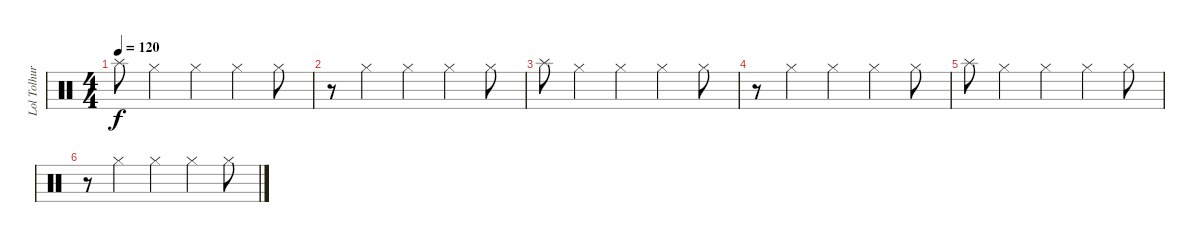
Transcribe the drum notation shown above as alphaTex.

\track ("Lol Tolhurst" "Lol Tolhur") {instrument percussion}
\staff {score}
\articulation defaults
\ts (4 4)
\tempo 120
\clef neutral
\ks c "Splash (hit)".8{dy f} "Hi-Hat (closed)".4 "Hi-Hat (closed)".4 "Hi-Hat (closed)".4 "Hi-Hat (closed)".8
|
r.8{volume 6} "Hi-Hat (closed)".4 "Hi-Hat (closed)".4 "Hi-Hat (closed)".4 "Hi-Hat (closed)".8 |
"Splash (hit)".8{volume 4} "Hi-Hat (closed)".4 "Hi-Hat (closed)".4 "Hi-Hat (closed)".4 "Hi-Hat (closed)".8 |
r.8{volume 3} "Hi-Hat (closed)".4 "Hi-Hat (closed)".4 "Hi-Hat (closed)".4 "Hi-Hat (closed)".8 |
"Splash (hit)".8{volume 2} "Hi-Hat (closed)".4 "Hi-Hat (closed)".4 "Hi-Hat (closed)".4 "Hi-Hat (closed)".8 |
r.8{volume 1} "Hi-Hat (closed)".4 "Hi-Hat (closed)".4 "Hi-Hat (closed)".4 "Hi-Hat (closed)".8
